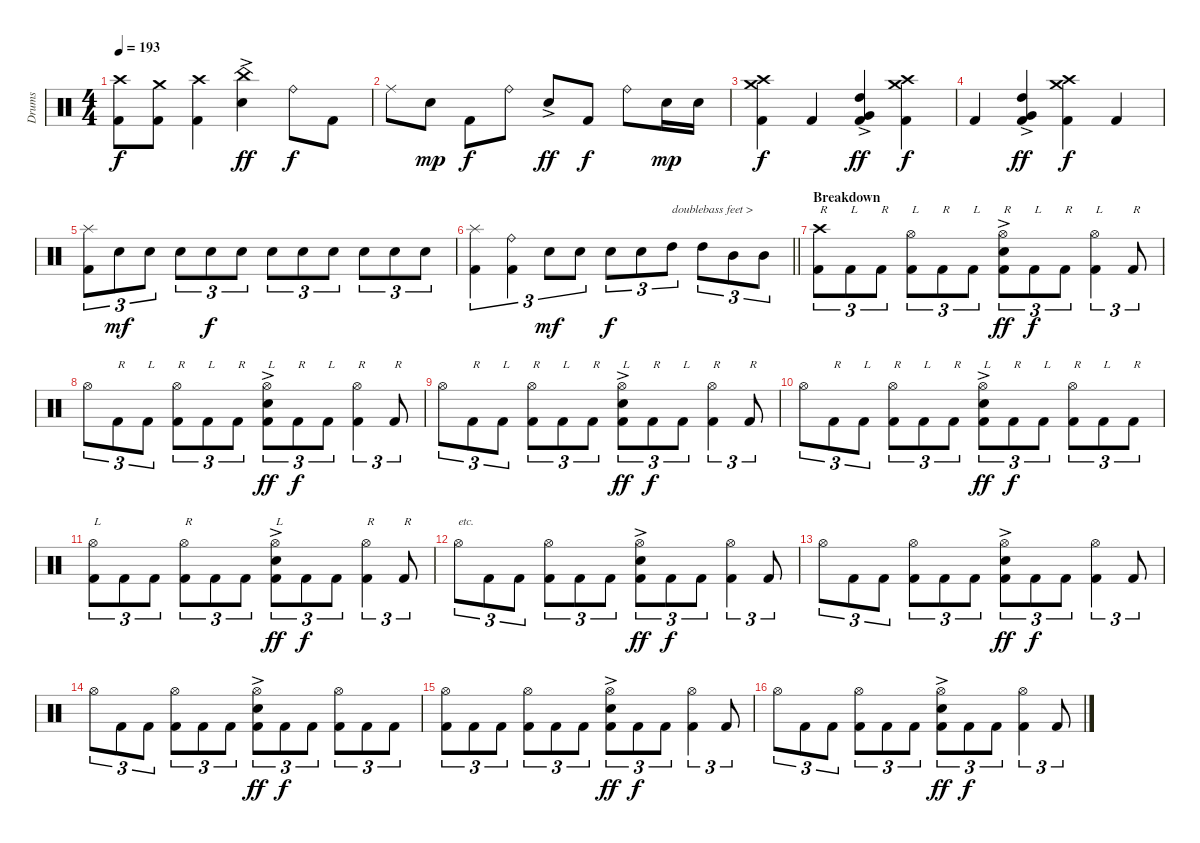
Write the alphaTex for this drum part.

\track ("Drums" "Drums") {instrument percussion}
\staff {score}
\articulation defaults
\ts (4 4)
\tempo 193
\clef neutral
\ks c
("Crash high (hit)" "Kick (hit) 2").8{dy f} ("Crash medium (hit)" "Kick (hit) 2").8 ("Crash high (hit)" "Kick (hit) 2").4 ("China (hit)" "Electric Snare (hit)"{ac}).4{dy ff} "Ride (bell)".8{dy f} "Kick (hit) 2".8 |
"Ride (middle)".8 "Electric Snare (hit)".8{dy mp} "Kick (hit) 2".8{dy f} "Ride (bell)".8 "Electric Snare (hit)"{ac}.8{dy ff} "Kick (hit) 2".8{dy f} "Ride (bell)".8 "Electric Snare (hit)".16{dy mp} "Electric Snare (hit)".16 |
("Crash high (hit)" "Crash medium (hit)" "Kick (hit) 2").4{dy f} "Kick (hit) 2".4 ("High Tom (hit)"{ac} "Very Low Tom (hit)"{ac} "Kick (hit) 2").4{dy ff} ("Crash high (hit)" "Crash medium (hit)" "Kick (hit) 2").4{dy f} |
"Kick (hit) 2".4 ("High Tom (hit)"{ac} "Very Low Tom (hit)"{ac} "Kick (hit) 2").4{dy ff} ("Crash high (hit)" "Crash medium (hit)" "Kick (hit) 2").4{dy f} "Kick (hit) 2".4 |
("Splash (hit)" "Kick (hit) 2").8{tu (3 2)} "Electric Snare (hit)".8{tu (3 2) dy mf} "Electric Snare (hit)".8{tu (3 2)} "Electric Snare (hit)".8{tu (3 2)} "Electric Snare (hit)".8{tu (3 2) dy f} "Electric Snare (hit)".8{tu (3 2)} "Electric Snare (hit)".8{tu (3 2)} "Electric Snare (hit)".8{tu (3 2)} "Electric Snare (hit)".8{tu (3 2)} "Electric Snare (hit)".8{tu (3 2)} "Electric Snare (hit)".8{tu (3 2)} "Electric Snare (hit)".8{tu (3 2)} |
\barLineRight lightlight
("Splash (hit)" "Kick (hit) 2").4{tu (3 2)} ("Ride (bell)" "Kick (hit) 2").4{tu (3 2)} "Electric Snare (hit)".8{tu (3 2) dy mf} "Electric Snare (hit)".8{tu (3 2)} "Electric Snare (hit)".8{tu (3 2) dy f} "Electric Snare (hit)".8{tu (3 2)} "High Tom (hit)".8{tu (3 2) txt "doublebass feet >"} "High Tom (hit)".8{tu (3 2)} "Mid Tom (hit)".8{tu (3 2)} "Mid Tom (hit)".8{tu (3 2)} |
\section ("" "Breakdown")
("Crash high (hit)" "Kick (hit) 2").8{tu (3 2) txt "R"} "Kick (hit) 2".8{tu (3 2) txt "L"} "Kick (hit) 2".8{tu (3 2) txt "R"} ("Hi-Hat (open)" "Kick (hit) 2").8{tu (3 2) txt "L"} "Kick (hit) 2".8{tu (3 2) txt "R"} "Kick (hit) 2".8{tu (3 2) txt "L"} ("Hi-Hat (open)" "Electric Snare (hit)"{ac} "Kick (hit) 2").8{tu (3 2) txt "R" dy ff} "Kick (hit) 2".8{tu (3 2) txt "L" dy f} "Kick (hit) 2".8{tu (3 2) txt "R"} ("Hi-Hat (open)" "Kick (hit) 2").4{tu (3 2) txt "L"} "Kick (hit) 2".8{tu (3 2) txt "R"} |
"Hi-Hat (open)".8{tu (3 2)} "Kick (hit) 2".8{tu (3 2) txt "R"} "Kick (hit) 2".8{tu (3 2) txt "L"} ("Hi-Hat (open)" "Kick (hit) 2").8{tu (3 2) txt "R"} "Kick (hit) 2".8{tu (3 2) txt "L"} "Kick (hit) 2".8{tu (3 2) txt "R"} ("Hi-Hat (open)" "Electric Snare (hit)"{ac} "Kick (hit) 2").8{tu (3 2) txt "L" dy ff} "Kick (hit) 2".8{tu (3 2) txt "R" dy f} "Kick (hit) 2".8{tu (3 2) txt "L"} ("Hi-Hat (open)" "Kick (hit) 2").4{tu (3 2) txt "R"} "Kick (hit) 2".8{tu (3 2) txt "R"} |
"Hi-Hat (open)".8{tu (3 2)} "Kick (hit) 2".8{tu (3 2) txt "R"} "Kick (hit) 2".8{tu (3 2) txt "L"} ("Hi-Hat (open)" "Kick (hit) 2").8{tu (3 2) txt "R"} "Kick (hit) 2".8{tu (3 2) txt "L"} "Kick (hit) 2".8{tu (3 2) txt "R"} ("Hi-Hat (open)" "Electric Snare (hit)"{ac} "Kick (hit) 2").8{tu (3 2) txt "L" dy ff} "Kick (hit) 2".8{tu (3 2) txt "R" dy f} "Kick (hit) 2".8{tu (3 2) txt "L"} ("Hi-Hat (open)" "Kick (hit) 2").4{tu (3 2) txt "R"} "Kick (hit) 2".8{tu (3 2) txt "R"} |
"Hi-Hat (open)".8{tu (3 2)} "Kick (hit) 2".8{tu (3 2) txt "R"} "Kick (hit) 2".8{tu (3 2) txt "L"} ("Hi-Hat (open)" "Kick (hit) 2").8{tu (3 2) txt "R"} "Kick (hit) 2".8{tu (3 2) txt "L"} "Kick (hit) 2".8{tu (3 2) txt "R"} ("Hi-Hat (open)" "Electric Snare (hit)"{ac} "Kick (hit) 2").8{tu (3 2) txt "L" dy ff} "Kick (hit) 2".8{tu (3 2) txt "R" dy f} "Kick (hit) 2".8{tu (3 2) txt "L"} ("Hi-Hat (open)" "Kick (hit) 2").8{tu (3 2) txt "R"} "Kick (hit) 2".8{tu (3 2) txt "L"} "Kick (hit) 2".8{tu (3 2) txt "R"} |
("Hi-Hat (open)" "Kick (hit) 2").8{tu (3 2) txt "L"} "Kick (hit) 2".8{tu (3 2)} "Kick (hit) 2".8{tu (3 2)} ("Hi-Hat (open)" "Kick (hit) 2").8{tu (3 2) txt "R"} "Kick (hit) 2".8{tu (3 2)} "Kick (hit) 2".8{tu (3 2)} ("Hi-Hat (open)" "Electric Snare (hit)"{ac} "Kick (hit) 2").8{tu (3 2) txt "L" dy ff} "Kick (hit) 2".8{tu (3 2) dy f} "Kick (hit) 2".8{tu (3 2)} ("Hi-Hat (open)" "Kick (hit) 2").4{tu (3 2) txt "R"} "Kick (hit) 2".8{tu (3 2) txt "R"} |
"Hi-Hat (open)".8{tu (3 2) txt "etc."} "Kick (hit) 2".8{tu (3 2)} "Kick (hit) 2".8{tu (3 2)} ("Hi-Hat (open)" "Kick (hit) 2").8{tu (3 2)} "Kick (hit) 2".8{tu (3 2)} "Kick (hit) 2".8{tu (3 2)} ("Hi-Hat (open)" "Electric Snare (hit)"{ac} "Kick (hit) 2").8{tu (3 2) dy ff} "Kick (hit) 2".8{tu (3 2) dy f} "Kick (hit) 2".8{tu (3 2)} ("Hi-Hat (open)" "Kick (hit) 2").4{tu (3 2)} "Kick (hit) 2".8{tu (3 2)} |
"Hi-Hat (open)".8{tu (3 2)} "Kick (hit) 2".8{tu (3 2)} "Kick (hit) 2".8{tu (3 2)} ("Hi-Hat (open)" "Kick (hit) 2").8{tu (3 2)} "Kick (hit) 2".8{tu (3 2)} "Kick (hit) 2".8{tu (3 2)} ("Hi-Hat (open)" "Electric Snare (hit)"{ac} "Kick (hit) 2").8{tu (3 2) dy ff} "Kick (hit) 2".8{tu (3 2) dy f} "Kick (hit) 2".8{tu (3 2)} ("Hi-Hat (open)" "Kick (hit) 2").4{tu (3 2)} "Kick (hit) 2".8{tu (3 2)} |
"Hi-Hat (open)".8{tu (3 2)} "Kick (hit) 2".8{tu (3 2)} "Kick (hit) 2".8{tu (3 2)} ("Hi-Hat (open)" "Kick (hit) 2").8{tu (3 2)} "Kick (hit) 2".8{tu (3 2)} "Kick (hit) 2".8{tu (3 2)} ("Hi-Hat (open)" "Electric Snare (hit)"{ac} "Kick (hit) 2").8{tu (3 2) dy ff} "Kick (hit) 2".8{tu (3 2) dy f} "Kick (hit) 2".8{tu (3 2)} ("Hi-Hat (open)" "Kick (hit) 2").8{tu (3 2)} "Kick (hit) 2".8{tu (3 2)} "Kick (hit) 2".8{tu (3 2)} |
("Hi-Hat (open)" "Kick (hit) 2").8{tu (3 2)} "Kick (hit) 2".8{tu (3 2)} "Kick (hit) 2".8{tu (3 2)} ("Hi-Hat (open)" "Kick (hit) 2").8{tu (3 2)} "Kick (hit) 2".8{tu (3 2)} "Kick (hit) 2".8{tu (3 2)} ("Hi-Hat (open)" "Electric Snare (hit)"{ac} "Kick (hit) 2").8{tu (3 2) dy ff} "Kick (hit) 2".8{tu (3 2) dy f} "Kick (hit) 2".8{tu (3 2)} ("Hi-Hat (open)" "Kick (hit) 2").4{tu (3 2)} "Kick (hit) 2".8{tu (3 2)} |
"Hi-Hat (open)".8{tu (3 2)} "Kick (hit) 2".8{tu (3 2)} "Kick (hit) 2".8{tu (3 2)} ("Hi-Hat (open)" "Kick (hit) 2").8{tu (3 2)} "Kick (hit) 2".8{tu (3 2)} "Kick (hit) 2".8{tu (3 2)} ("Hi-Hat (open)" "Electric Snare (hit)"{ac} "Kick (hit) 2").8{tu (3 2) dy ff} "Kick (hit) 2".8{tu (3 2) dy f} "Kick (hit) 2".8{tu (3 2)} ("Hi-Hat (open)" "Kick (hit) 2").4{tu (3 2)} "Kick (hit) 2".8{tu (3 2)}
